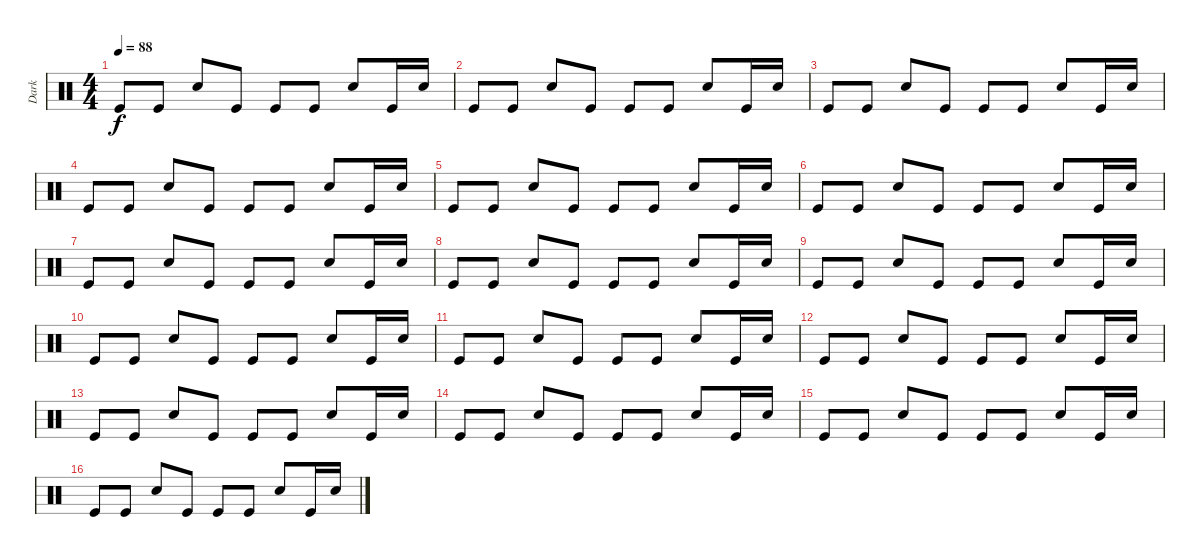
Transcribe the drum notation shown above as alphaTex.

\track ("Dark " "Dark ") {instrument percussion}
\staff {score}
\articulation defaults
\ts (4 4)
\tempo 88
\clef neutral
\ks c "Kick (hit)".8{dy f} "Kick (hit)".8 "Snare (hit) 2".8 "Kick (hit)".8 "Kick (hit)".8 "Kick (hit)".8 "Snare (hit) 2".8 "Kick (hit)".16 "Snare (hit) 2".16
|
"Kick (hit)".8 "Kick (hit)".8 "Snare (hit) 2".8 "Kick (hit)".8 "Kick (hit)".8 "Kick (hit)".8 "Snare (hit) 2".8 "Kick (hit)".16 "Snare (hit) 2".16 |
"Kick (hit)".8 "Kick (hit)".8 "Snare (hit) 2".8 "Kick (hit)".8 "Kick (hit)".8 "Kick (hit)".8 "Snare (hit) 2".8 "Kick (hit)".16 "Snare (hit) 2".16 |
"Kick (hit)".8 "Kick (hit)".8 "Snare (hit) 2".8 "Kick (hit)".8 "Kick (hit)".8 "Kick (hit)".8 "Snare (hit) 2".8 "Kick (hit)".16 "Snare (hit) 2".16 |
"Kick (hit)".8 "Kick (hit)".8 "Snare (hit) 2".8 "Kick (hit)".8 "Kick (hit)".8 "Kick (hit)".8 "Snare (hit) 2".8 "Kick (hit)".16 "Snare (hit) 2".16 |
"Kick (hit)".8 "Kick (hit)".8 "Snare (hit) 2".8 "Kick (hit)".8 "Kick (hit)".8 "Kick (hit)".8 "Snare (hit) 2".8 "Kick (hit)".16 "Snare (hit) 2".16 |
"Kick (hit)".8 "Kick (hit)".8 "Snare (hit) 2".8 "Kick (hit)".8 "Kick (hit)".8 "Kick (hit)".8 "Snare (hit) 2".8 "Kick (hit)".16 "Snare (hit) 2".16 |
"Kick (hit)".8 "Kick (hit)".8 "Snare (hit) 2".8 "Kick (hit)".8 "Kick (hit)".8 "Kick (hit)".8 "Snare (hit) 2".8 "Kick (hit)".16 "Snare (hit) 2".16 |
"Kick (hit)".8 "Kick (hit)".8 "Snare (hit) 2".8 "Kick (hit)".8 "Kick (hit)".8 "Kick (hit)".8 "Snare (hit) 2".8 "Kick (hit)".16 "Snare (hit) 2".16 |
"Kick (hit)".8 "Kick (hit)".8 "Snare (hit) 2".8 "Kick (hit)".8 "Kick (hit)".8 "Kick (hit)".8 "Snare (hit) 2".8 "Kick (hit)".16 "Snare (hit) 2".16 |
"Kick (hit)".8 "Kick (hit)".8 "Snare (hit) 2".8 "Kick (hit)".8 "Kick (hit)".8 "Kick (hit)".8 "Snare (hit) 2".8 "Kick (hit)".16 "Snare (hit) 2".16 |
"Kick (hit)".8 "Kick (hit)".8 "Snare (hit) 2".8 "Kick (hit)".8 "Kick (hit)".8 "Kick (hit)".8 "Snare (hit) 2".8 "Kick (hit)".16 "Snare (hit) 2".16 |
"Kick (hit)".8 "Kick (hit)".8 "Snare (hit) 2".8 "Kick (hit)".8 "Kick (hit)".8 "Kick (hit)".8 "Snare (hit) 2".8 "Kick (hit)".16 "Snare (hit) 2".16 |
"Kick (hit)".8 "Kick (hit)".8 "Snare (hit) 2".8 "Kick (hit)".8 "Kick (hit)".8 "Kick (hit)".8 "Snare (hit) 2".8 "Kick (hit)".16 "Snare (hit) 2".16 |
"Kick (hit)".8 "Kick (hit)".8 "Snare (hit) 2".8 "Kick (hit)".8 "Kick (hit)".8 "Kick (hit)".8 "Snare (hit) 2".8 "Kick (hit)".16 "Snare (hit) 2".16 |
"Kick (hit)".8 "Kick (hit)".8 "Snare (hit) 2".8 "Kick (hit)".8 "Kick (hit)".8 "Kick (hit)".8 "Snare (hit) 2".8 "Kick (hit)".16 "Snare (hit) 2".16
